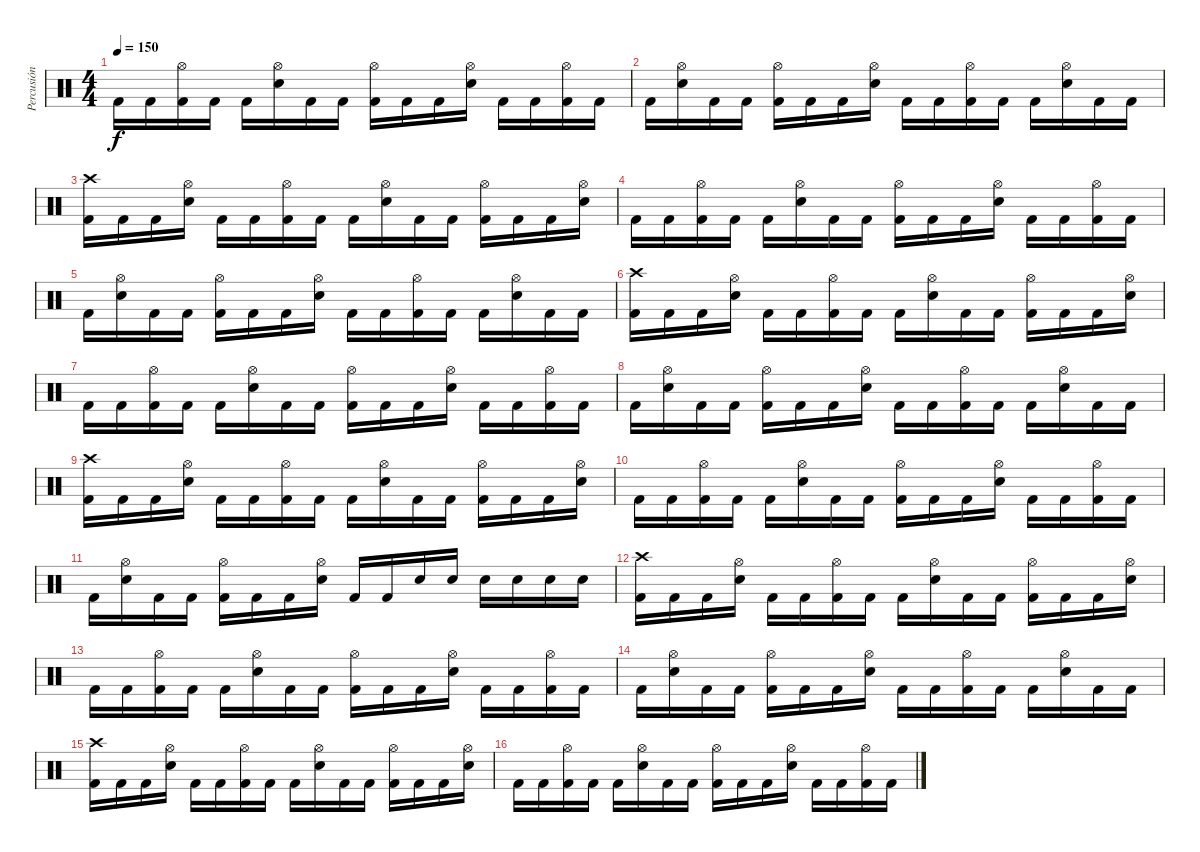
\track ("Percusión" "Percusión") {instrument percussion}
\staff {score}
\articulation defaults
\ts (4 4)
\tempo 150
\clef neutral
\ks c "Kick (hit) 2".16{dy f} "Kick (hit) 2".16
("Hi-Hat (open)" "Kick (hit) 2").16 "Kick (hit) 2".16 "Kick (hit) 2".16 ("Hi-Hat (open)" "Electric Snare (hit)").16 "Kick (hit) 2".16 "Kick (hit) 2".16 ("Hi-Hat (open)" "Kick (hit) 2").16 "Kick (hit) 2".16 "Kick (hit) 2".16 ("Hi-Hat (open)" "Electric Snare (hit)").16 "Kick (hit) 2".16 "Kick (hit) 2".16 ("Hi-Hat (open)" "Kick (hit) 2").16 "Kick (hit) 2".16 |
"Kick (hit) 2".16 ("Hi-Hat (open)" "Electric Snare (hit)").16 "Kick (hit) 2".16 "Kick (hit) 2".16 ("Hi-Hat (open)" "Kick (hit) 2").16 "Kick (hit) 2".16 "Kick (hit) 2".16 ("Hi-Hat (open)" "Electric Snare (hit)").16 "Kick (hit) 2".16 "Kick (hit) 2".16 ("Hi-Hat (open)" "Kick (hit) 2").16 "Kick (hit) 2".16 "Kick (hit) 2".16 ("Hi-Hat (open)" "Electric Snare (hit)").16 "Kick (hit) 2".16 "Kick (hit) 2".16 |
("Crash high (hit)" "Kick (hit) 2").16 "Kick (hit) 2".16 "Kick (hit) 2".16 ("Hi-Hat (open)" "Electric Snare (hit)").16 "Kick (hit) 2".16 "Kick (hit) 2".16 ("Hi-Hat (open)" "Kick (hit) 2").16 "Kick (hit) 2".16 "Kick (hit) 2".16 ("Hi-Hat (open)" "Electric Snare (hit)").16 "Kick (hit) 2".16 "Kick (hit) 2".16 ("Hi-Hat (open)" "Kick (hit) 2").16 "Kick (hit) 2".16 "Kick (hit) 2".16 ("Hi-Hat (open)" "Electric Snare (hit)").16 |
"Kick (hit) 2".16 "Kick (hit) 2".16 ("Hi-Hat (open)" "Kick (hit) 2").16 "Kick (hit) 2".16 "Kick (hit) 2".16 ("Hi-Hat (open)" "Electric Snare (hit)").16 "Kick (hit) 2".16 "Kick (hit) 2".16 ("Hi-Hat (open)" "Kick (hit) 2").16 "Kick (hit) 2".16 "Kick (hit) 2".16 ("Hi-Hat (open)" "Electric Snare (hit)").16 "Kick (hit) 2".16 "Kick (hit) 2".16 ("Hi-Hat (open)" "Kick (hit) 2").16 "Kick (hit) 2".16 |
"Kick (hit) 2".16 ("Hi-Hat (open)" "Electric Snare (hit)").16 "Kick (hit) 2".16 "Kick (hit) 2".16 ("Hi-Hat (open)" "Kick (hit) 2").16 "Kick (hit) 2".16 "Kick (hit) 2".16 ("Hi-Hat (open)" "Electric Snare (hit)").16 "Kick (hit) 2".16 "Kick (hit) 2".16 ("Hi-Hat (open)" "Kick (hit) 2").16 "Kick (hit) 2".16 "Kick (hit) 2".16 ("Hi-Hat (open)" "Electric Snare (hit)").16 "Kick (hit) 2".16 "Kick (hit) 2".16 |
("Crash high (hit)" "Kick (hit) 2").16 "Kick (hit) 2".16 "Kick (hit) 2".16 ("Hi-Hat (open)" "Electric Snare (hit)").16 "Kick (hit) 2".16 "Kick (hit) 2".16 ("Hi-Hat (open)" "Kick (hit) 2").16 "Kick (hit) 2".16 "Kick (hit) 2".16 ("Hi-Hat (open)" "Electric Snare (hit)").16 "Kick (hit) 2".16 "Kick (hit) 2".16 ("Hi-Hat (open)" "Kick (hit) 2").16 "Kick (hit) 2".16 "Kick (hit) 2".16 ("Hi-Hat (open)" "Electric Snare (hit)").16 |
"Kick (hit) 2".16 "Kick (hit) 2".16 ("Hi-Hat (open)" "Kick (hit) 2").16 "Kick (hit) 2".16 "Kick (hit) 2".16 ("Hi-Hat (open)" "Electric Snare (hit)").16 "Kick (hit) 2".16 "Kick (hit) 2".16 ("Hi-Hat (open)" "Kick (hit) 2").16 "Kick (hit) 2".16 "Kick (hit) 2".16 ("Hi-Hat (open)" "Electric Snare (hit)").16 "Kick (hit) 2".16 "Kick (hit) 2".16 ("Hi-Hat (open)" "Kick (hit) 2").16 "Kick (hit) 2".16 |
"Kick (hit) 2".16 ("Hi-Hat (open)" "Electric Snare (hit)").16 "Kick (hit) 2".16 "Kick (hit) 2".16 ("Hi-Hat (open)" "Kick (hit) 2").16 "Kick (hit) 2".16 "Kick (hit) 2".16 ("Hi-Hat (open)" "Electric Snare (hit)").16 "Kick (hit) 2".16 "Kick (hit) 2".16 ("Hi-Hat (open)" "Kick (hit) 2").16 "Kick (hit) 2".16 "Kick (hit) 2".16 ("Hi-Hat (open)" "Electric Snare (hit)").16 "Kick (hit) 2".16 "Kick (hit) 2".16 |
("Crash high (hit)" "Kick (hit) 2").16 "Kick (hit) 2".16 "Kick (hit) 2".16 ("Hi-Hat (open)" "Electric Snare (hit)").16 "Kick (hit) 2".16 "Kick (hit) 2".16 ("Hi-Hat (open)" "Kick (hit) 2").16 "Kick (hit) 2".16 "Kick (hit) 2".16 ("Hi-Hat (open)" "Electric Snare (hit)").16 "Kick (hit) 2".16 "Kick (hit) 2".16 ("Hi-Hat (open)" "Kick (hit) 2").16 "Kick (hit) 2".16 "Kick (hit) 2".16 ("Hi-Hat (open)" "Electric Snare (hit)").16 |
"Kick (hit) 2".16 "Kick (hit) 2".16 ("Hi-Hat (open)" "Kick (hit) 2").16 "Kick (hit) 2".16 "Kick (hit) 2".16 ("Hi-Hat (open)" "Electric Snare (hit)").16 "Kick (hit) 2".16 "Kick (hit) 2".16 ("Hi-Hat (open)" "Kick (hit) 2").16 "Kick (hit) 2".16 "Kick (hit) 2".16 ("Hi-Hat (open)" "Electric Snare (hit)").16 "Kick (hit) 2".16 "Kick (hit) 2".16 ("Hi-Hat (open)" "Kick (hit) 2").16 "Kick (hit) 2".16 |
"Kick (hit) 2".16 ("Hi-Hat (open)" "Electric Snare (hit)").16 "Kick (hit) 2".16 "Kick (hit) 2".16 ("Hi-Hat (open)" "Kick (hit) 2").16 "Kick (hit) 2".16 "Kick (hit) 2".16 ("Hi-Hat (open)" "Electric Snare (hit)").16 "Kick (hit) 2".16 "Kick (hit) 2".16 "Electric Snare (hit)".16 "Electric Snare (hit)".16 "Electric Snare (hit)".16 "Electric Snare (hit)".16 "Electric Snare (hit)".16 "Electric Snare (hit)".16 |
("Crash high (hit)" "Kick (hit) 2").16 "Kick (hit) 2".16 "Kick (hit) 2".16 ("Hi-Hat (open)" "Electric Snare (hit)").16 "Kick (hit) 2".16 "Kick (hit) 2".16 ("Hi-Hat (open)" "Kick (hit) 2").16 "Kick (hit) 2".16 "Kick (hit) 2".16 ("Hi-Hat (open)" "Electric Snare (hit)").16 "Kick (hit) 2".16 "Kick (hit) 2".16 ("Hi-Hat (open)" "Kick (hit) 2").16 "Kick (hit) 2".16 "Kick (hit) 2".16 ("Hi-Hat (open)" "Electric Snare (hit)").16 |
"Kick (hit) 2".16 "Kick (hit) 2".16 ("Hi-Hat (open)" "Kick (hit) 2").16 "Kick (hit) 2".16 "Kick (hit) 2".16 ("Hi-Hat (open)" "Electric Snare (hit)").16 "Kick (hit) 2".16 "Kick (hit) 2".16 ("Hi-Hat (open)" "Kick (hit) 2").16 "Kick (hit) 2".16 "Kick (hit) 2".16 ("Hi-Hat (open)" "Electric Snare (hit)").16 "Kick (hit) 2".16 "Kick (hit) 2".16 ("Hi-Hat (open)" "Kick (hit) 2").16 "Kick (hit) 2".16 |
"Kick (hit) 2".16 ("Hi-Hat (open)" "Electric Snare (hit)").16 "Kick (hit) 2".16 "Kick (hit) 2".16 ("Hi-Hat (open)" "Kick (hit) 2").16 "Kick (hit) 2".16 "Kick (hit) 2".16 ("Hi-Hat (open)" "Electric Snare (hit)").16 "Kick (hit) 2".16 "Kick (hit) 2".16 ("Hi-Hat (open)" "Kick (hit) 2").16 "Kick (hit) 2".16 "Kick (hit) 2".16 ("Hi-Hat (open)" "Electric Snare (hit)").16 "Kick (hit) 2".16 "Kick (hit) 2".16 |
("Crash high (hit)" "Kick (hit) 2").16 "Kick (hit) 2".16 "Kick (hit) 2".16 ("Hi-Hat (open)" "Electric Snare (hit)").16 "Kick (hit) 2".16 "Kick (hit) 2".16 ("Hi-Hat (open)" "Kick (hit) 2").16 "Kick (hit) 2".16 "Kick (hit) 2".16 ("Hi-Hat (open)" "Electric Snare (hit)").16 "Kick (hit) 2".16 "Kick (hit) 2".16 ("Hi-Hat (open)" "Kick (hit) 2").16 "Kick (hit) 2".16 "Kick (hit) 2".16 ("Hi-Hat (open)" "Electric Snare (hit)").16 |
"Kick (hit) 2".16 "Kick (hit) 2".16 ("Hi-Hat (open)" "Kick (hit) 2").16 "Kick (hit) 2".16 "Kick (hit) 2".16 ("Hi-Hat (open)" "Electric Snare (hit)").16 "Kick (hit) 2".16 "Kick (hit) 2".16 ("Hi-Hat (open)" "Kick (hit) 2").16 "Kick (hit) 2".16 "Kick (hit) 2".16 ("Hi-Hat (open)" "Electric Snare (hit)").16 "Kick (hit) 2".16 "Kick (hit) 2".16 ("Hi-Hat (open)" "Kick (hit) 2").16 "Kick (hit) 2".16
